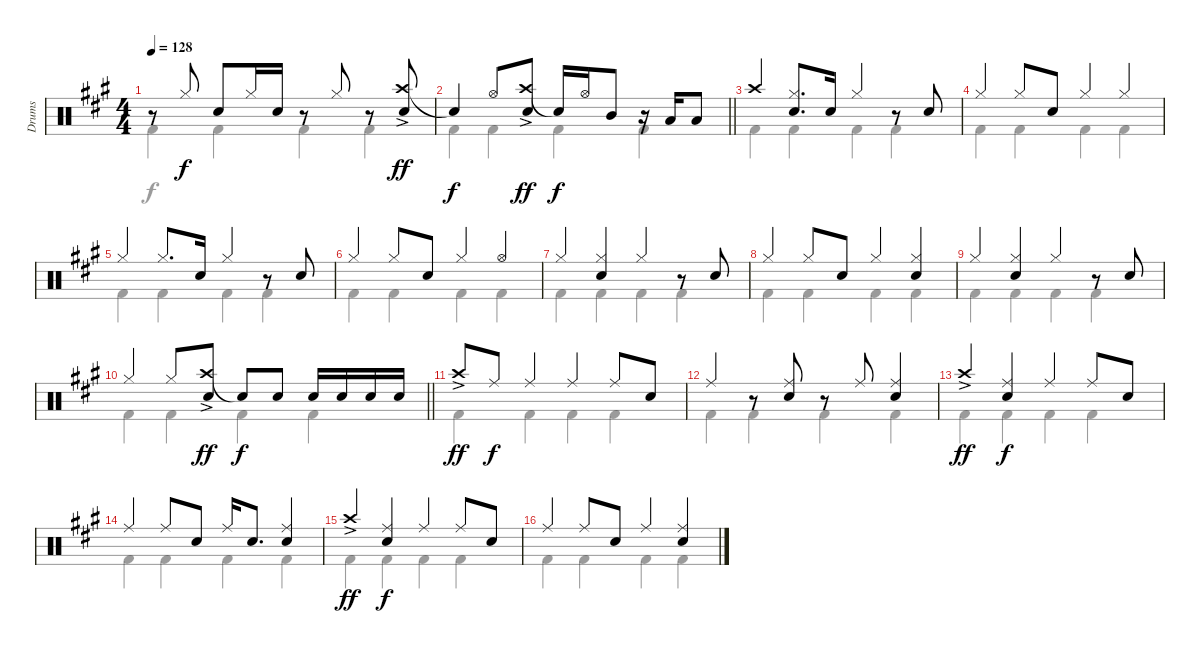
\track ("Drums" "Drums") {instrument percussion}
\staff {score}
\articulation defaults
\voice
\ts (4 4)
\tempo 128
\clef neutral
\ks a
r.8{dy f} "Hi-Hat (closed)".8 "Snare (hit) 2".8 "Hi-Hat (closed)".16 "Snare (hit) 2".16 r.8 "Hi-Hat (closed)".8 r.8 ("Crash high (hit)"{ac} "Snare (hit) 2").8{dy ff} |
\barLineRight lightlight "Snare (hit)"{t}.4{dy f} "Hi-Hat (open)".8
("Crash high (hit)"{ac} "Snare (hit) 2").8{dy ff} "Snare (hit)"{t}.16{dy f} "Hi-Hat (open)".16 "Mid Tom (hit)".8 r.16 "Low Tom (hit)".16 "Low Tom (hit)".8 |
"Crash high (hit)".4 ("Hi-Hat (closed)" "Snare (hit) 2").8{d} "Snare (hit) 2".16 "Hi-Hat (closed)".4 r.8 "Snare (hit) 2".8 |
"Hi-Hat (closed)".4 "Hi-Hat (closed)".8 "Snare (hit) 2".8 "Hi-Hat (closed)".4 "Hi-Hat (closed)".4 |
"Hi-Hat (closed)".4 "Hi-Hat (closed)".8{d} "Snare (hit) 2".16 "Hi-Hat (closed)".4 r.8 "Snare (hit) 2".8 |
"Hi-Hat (closed)".4 "Hi-Hat (closed)".8 "Snare (hit) 2".8 "Hi-Hat (closed)".4 "Hi-Hat (open)".4 |
"Hi-Hat (closed)".4 ("Hi-Hat (closed)" "Snare (hit) 2").4 "Hi-Hat (closed)".4 r.8 "Snare (hit) 2".8 |
"Hi-Hat (closed)".4 "Hi-Hat (closed)".8 "Snare (hit) 2".8 "Hi-Hat (closed)".4 ("Hi-Hat (closed)" "Snare (hit) 2").4 |
"Hi-Hat (closed)".4 ("Hi-Hat (closed)" "Snare (hit) 2").4 "Hi-Hat (closed)".4 r.8 "Snare (hit) 2".8 |
\barLineRight lightlight "Hi-Hat (closed)".4 "Hi-Hat (closed)".8
("Crash high (hit)"{ac} "Snare (hit) 2").8{dy ff} "Snare (hit)"{t}.8{dy f} "Snare (hit) 2".8 "Snare (hit) 2".16 "Snare (hit) 2".16 "Snare (hit) 2".16 "Snare (hit) 2".16 |
"Crash high (hit)"{ac}.8{dy ff} "Ride (middle)".8{dy f} "Ride (middle)".4 "Ride (middle)".4 "Ride (middle)".8 "Snare (hit) 2".8 |
"Ride (middle)".4 r.8 ("Ride (middle)" "Snare (hit) 2").8 r.8 "Ride (middle)".8 ("Ride (middle)" "Snare (hit) 2").4 |
"Crash high (hit)"{ac}.4{dy ff} ("Ride (middle)" "Snare (hit) 2").4{dy f} "Ride (middle)".4 "Ride (middle)".8 "Snare (hit) 2".8 |
"Ride (middle)".4 "Ride (middle)".8 "Snare (hit) 2".8 "Ride (middle)".16 "Snare (hit) 2".8{d} ("Ride (middle)" "Snare (hit) 2").4 |
"Crash high (hit)"{ac}.4{dy ff} ("Ride (middle)" "Snare (hit) 2").4{dy f} "Ride (middle)".4 "Ride (middle)".8 "Snare (hit) 2".8 |
"Ride (middle)".4 "Ride (middle)".8 "Snare (hit) 2".8 "Ride (middle)".4 ("Ride (middle)" "Snare (hit) 2").4
\voice
\clef neutral
\ottava regular
\simile none
\ks a "Kick (hit) 2".4{dy f} "Kick (hit) 2".4 "Kick (hit) 2".4 "Kick (hit) 2".4
|
\barLineRight lightlight "Kick (hit) 2".4 "Kick (hit) 2".4 "Kick (hit) 2".4 "Kick (hit) 2".4
|
"Kick (hit) 2".4 "Kick (hit) 2".4 "Kick (hit) 2".4 "Kick (hit) 2".4 |
"Kick (hit) 2".4 "Kick (hit) 2".4 "Kick (hit) 2".4 "Kick (hit) 2".4 |
"Kick (hit) 2".4 "Kick (hit) 2".4 "Kick (hit) 2".4 "Kick (hit) 2".4 |
"Kick (hit) 2".4 "Kick (hit) 2".4 "Kick (hit) 2".4 "Kick (hit) 2".4 |
"Kick (hit) 2".4 "Kick (hit) 2".4 "Kick (hit) 2".4 "Kick (hit) 2".4 |
"Kick (hit) 2".4 "Kick (hit) 2".4 "Kick (hit) 2".4 "Kick (hit) 2".4 |
"Kick (hit) 2".4 "Kick (hit) 2".4 "Kick (hit) 2".4 "Kick (hit) 2".4 |
\barLineRight lightlight "Kick (hit) 2".4 "Kick (hit) 2".4 "Kick (hit) 2".4 "Kick (hit) 2".4
|
"Kick (hit) 2".4 "Kick (hit) 2".4 "Kick (hit) 2".4 "Kick (hit) 2".4 |
"Kick (hit) 2".4 "Kick (hit) 2".4 "Kick (hit) 2".4 "Kick (hit) 2".4 |
"Kick (hit) 2".4 "Kick (hit) 2".4 "Kick (hit) 2".4 "Kick (hit) 2".4 |
"Kick (hit) 2".4 "Kick (hit) 2".4 "Kick (hit) 2".4 "Kick (hit) 2".4 |
"Kick (hit) 2".4 "Kick (hit) 2".4 "Kick (hit) 2".4 "Kick (hit) 2".4 |
"Kick (hit) 2".4 "Kick (hit) 2".4 "Kick (hit) 2".4 "Kick (hit) 2".4
